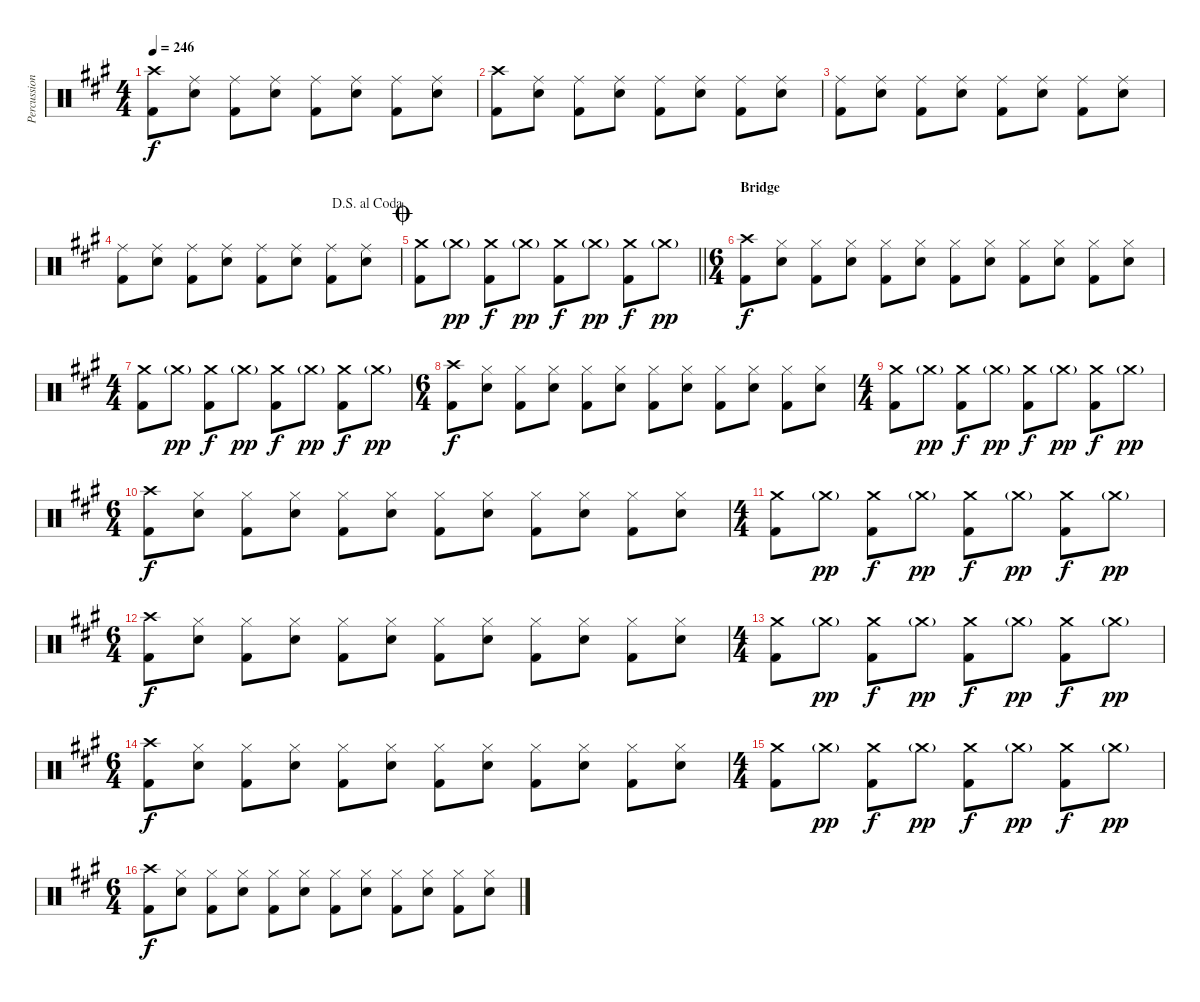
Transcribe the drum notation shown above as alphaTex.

\track ("Percussion" "Percussion") {instrument percussion}
\staff {score}
\articulation defaults
\ts (4 4)
\tempo 246
\clef neutral
\ks f#minor
("Crash high (hit)" "Kick (hit) 2").8{dy f} ("Ride (middle)" "Electric Snare (hit)").8 ("Ride (middle)" "Kick (hit) 2").8 ("Ride (middle)" "Electric Snare (hit)").8 ("Ride (middle)" "Kick (hit) 2").8 ("Ride (middle)" "Electric Snare (hit)").8 ("Ride (middle)" "Kick (hit) 2").8 ("Ride (middle)" "Electric Snare (hit)").8 |
("Crash high (hit)" "Kick (hit) 2").8 ("Ride (middle)" "Electric Snare (hit)").8 ("Ride (middle)" "Kick (hit) 2").8 ("Ride (middle)" "Electric Snare (hit)").8 ("Ride (middle)" "Kick (hit) 2").8 ("Ride (middle)" "Electric Snare (hit)").8 ("Ride (middle)" "Kick (hit) 2").8 ("Ride (middle)" "Electric Snare (hit)").8 |
("Ride (middle)" "Kick (hit) 2").8 ("Ride (middle)" "Electric Snare (hit)").8 ("Ride (middle)" "Kick (hit) 2").8 ("Ride (middle)" "Electric Snare (hit)").8 ("Ride (middle)" "Kick (hit) 2").8 ("Ride (middle)" "Electric Snare (hit)").8 ("Ride (middle)" "Kick (hit) 2").8 ("Ride (middle)" "Electric Snare (hit)").8 |
\jump dalsegnoalcoda
("Ride (middle)" "Kick (hit) 2").8 ("Ride (middle)" "Electric Snare (hit)").8 ("Ride (middle)" "Kick (hit) 2").8 ("Ride (middle)" "Electric Snare (hit)").8 ("Ride (middle)" "Kick (hit) 2").8 ("Ride (middle)" "Electric Snare (hit)").8 ("Ride (middle)" "Kick (hit) 2").8 ("Ride (middle)" "Electric Snare (hit)").8 |
\jump coda
\barLineRight lightlight
("Crash medium (hit)" "Kick (hit) 2").8 "Crash medium (hit)"{g}.8{dy pp} ("Crash medium (hit)" "Kick (hit) 2").8{dy f} "Crash medium (hit)"{g}.8{dy pp} ("Crash medium (hit)" "Kick (hit) 2").8{dy f} "Crash medium (hit)"{g}.8{dy pp} ("Crash medium (hit)" "Kick (hit) 2").8{dy f} "Crash medium (hit)"{g}.8{dy pp} |
\ts (6 4)
\section ("" "Bridge")
("Crash high (hit)" "Kick (hit) 2").8{dy f} ("Hi-Hat (closed)" "Electric Snare (hit)").8 ("Hi-Hat (closed)" "Kick (hit) 2").8 ("Hi-Hat (closed)" "Electric Snare (hit)").8 ("Hi-Hat (closed)" "Kick (hit) 2").8 ("Hi-Hat (closed)" "Electric Snare (hit)").8 ("Hi-Hat (closed)" "Kick (hit) 2").8 ("Hi-Hat (closed)" "Electric Snare (hit)").8 ("Hi-Hat (closed)" "Kick (hit) 2").8 ("Hi-Hat (closed)" "Electric Snare (hit)").8 ("Hi-Hat (closed)" "Kick (hit) 2").8 ("Hi-Hat (closed)" "Electric Snare (hit)").8 |
\ts (4 4)
("Crash medium (hit)" "Kick (hit) 2").8 "Crash medium (hit)"{g}.8{dy pp} ("Crash medium (hit)" "Kick (hit) 2").8{dy f} "Crash medium (hit)"{g}.8{dy pp} ("Crash medium (hit)" "Kick (hit) 2").8{dy f} "Crash medium (hit)"{g}.8{dy pp} ("Crash medium (hit)" "Kick (hit) 2").8{dy f} "Crash medium (hit)"{g}.8{dy pp} |
\ts (6 4)
("Crash high (hit)" "Kick (hit) 2").8{dy f} ("Hi-Hat (closed)" "Electric Snare (hit)").8 ("Hi-Hat (closed)" "Kick (hit) 2").8 ("Hi-Hat (closed)" "Electric Snare (hit)").8 ("Hi-Hat (closed)" "Kick (hit) 2").8 ("Hi-Hat (closed)" "Electric Snare (hit)").8 ("Hi-Hat (closed)" "Kick (hit) 2").8 ("Hi-Hat (closed)" "Electric Snare (hit)").8 ("Hi-Hat (closed)" "Kick (hit) 2").8 ("Hi-Hat (closed)" "Electric Snare (hit)").8 ("Hi-Hat (closed)" "Kick (hit) 2").8 ("Hi-Hat (closed)" "Electric Snare (hit)").8 |
\ts (4 4)
("Crash medium (hit)" "Kick (hit) 2").8 "Crash medium (hit)"{g}.8{dy pp} ("Crash medium (hit)" "Kick (hit) 2").8{dy f} "Crash medium (hit)"{g}.8{dy pp} ("Crash medium (hit)" "Kick (hit) 2").8{dy f} "Crash medium (hit)"{g}.8{dy pp} ("Crash medium (hit)" "Kick (hit) 2").8{dy f} "Crash medium (hit)"{g}.8{dy pp} |
\ts (6 4)
("Crash high (hit)" "Kick (hit) 2").8{dy f} ("Hi-Hat (closed)" "Electric Snare (hit)").8 ("Hi-Hat (closed)" "Kick (hit) 2").8 ("Hi-Hat (closed)" "Electric Snare (hit)").8 ("Hi-Hat (closed)" "Kick (hit) 2").8 ("Hi-Hat (closed)" "Electric Snare (hit)").8 ("Hi-Hat (closed)" "Kick (hit) 2").8 ("Hi-Hat (closed)" "Electric Snare (hit)").8 ("Hi-Hat (closed)" "Kick (hit) 2").8 ("Hi-Hat (closed)" "Electric Snare (hit)").8 ("Hi-Hat (closed)" "Kick (hit) 2").8 ("Hi-Hat (closed)" "Electric Snare (hit)").8 |
\ts (4 4)
("Crash medium (hit)" "Kick (hit) 2").8 "Crash medium (hit)"{g}.8{dy pp} ("Crash medium (hit)" "Kick (hit) 2").8{dy f} "Crash medium (hit)"{g}.8{dy pp} ("Crash medium (hit)" "Kick (hit) 2").8{dy f} "Crash medium (hit)"{g}.8{dy pp} ("Crash medium (hit)" "Kick (hit) 2").8{dy f} "Crash medium (hit)"{g}.8{dy pp} |
\ts (6 4)
("Crash high (hit)" "Kick (hit) 2").8{dy f} ("Hi-Hat (closed)" "Electric Snare (hit)").8 ("Hi-Hat (closed)" "Kick (hit) 2").8 ("Hi-Hat (closed)" "Electric Snare (hit)").8 ("Hi-Hat (closed)" "Kick (hit) 2").8 ("Hi-Hat (closed)" "Electric Snare (hit)").8 ("Hi-Hat (closed)" "Kick (hit) 2").8 ("Hi-Hat (closed)" "Electric Snare (hit)").8 ("Hi-Hat (closed)" "Kick (hit) 2").8 ("Hi-Hat (closed)" "Electric Snare (hit)").8 ("Hi-Hat (closed)" "Kick (hit) 2").8 ("Hi-Hat (closed)" "Electric Snare (hit)").8 |
\ts (4 4)
("Crash medium (hit)" "Kick (hit) 2").8 "Crash medium (hit)"{g}.8{dy pp} ("Crash medium (hit)" "Kick (hit) 2").8{dy f} "Crash medium (hit)"{g}.8{dy pp} ("Crash medium (hit)" "Kick (hit) 2").8{dy f} "Crash medium (hit)"{g}.8{dy pp} ("Crash medium (hit)" "Kick (hit) 2").8{dy f} "Crash medium (hit)"{g}.8{dy pp} |
\ts (6 4)
("Crash high (hit)" "Kick (hit) 2").8{dy f} ("Hi-Hat (closed)" "Electric Snare (hit)").8 ("Hi-Hat (closed)" "Kick (hit) 2").8 ("Hi-Hat (closed)" "Electric Snare (hit)").8 ("Hi-Hat (closed)" "Kick (hit) 2").8 ("Hi-Hat (closed)" "Electric Snare (hit)").8 ("Hi-Hat (closed)" "Kick (hit) 2").8 ("Hi-Hat (closed)" "Electric Snare (hit)").8 ("Hi-Hat (closed)" "Kick (hit) 2").8 ("Hi-Hat (closed)" "Electric Snare (hit)").8 ("Hi-Hat (closed)" "Kick (hit) 2").8 ("Hi-Hat (closed)" "Electric Snare (hit)").8 |
\ts (4 4)
("Crash medium (hit)" "Kick (hit) 2").8 "Crash medium (hit)"{g}.8{dy pp} ("Crash medium (hit)" "Kick (hit) 2").8{dy f} "Crash medium (hit)"{g}.8{dy pp} ("Crash medium (hit)" "Kick (hit) 2").8{dy f} "Crash medium (hit)"{g}.8{dy pp} ("Crash medium (hit)" "Kick (hit) 2").8{dy f} "Crash medium (hit)"{g}.8{dy pp} |
\ts (6 4)
("Crash high (hit)" "Kick (hit) 2").8{dy f} ("Hi-Hat (closed)" "Electric Snare (hit)").8 ("Hi-Hat (closed)" "Kick (hit) 2").8 ("Hi-Hat (closed)" "Electric Snare (hit)").8 ("Hi-Hat (closed)" "Kick (hit) 2").8 ("Hi-Hat (closed)" "Electric Snare (hit)").8 ("Hi-Hat (closed)" "Kick (hit) 2").8 ("Hi-Hat (closed)" "Electric Snare (hit)").8 ("Hi-Hat (closed)" "Kick (hit) 2").8 ("Hi-Hat (closed)" "Electric Snare (hit)").8 ("Hi-Hat (closed)" "Kick (hit) 2").8 ("Hi-Hat (closed)" "Electric Snare (hit)").8
